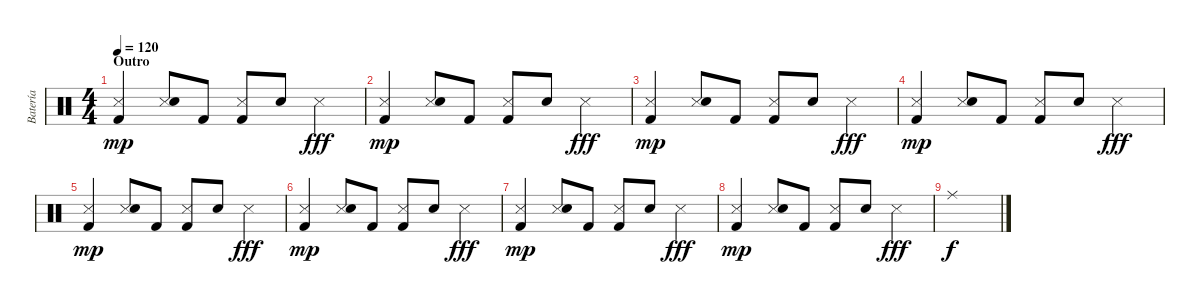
\track ("Batería" "Batería") {instrument percussion}
\staff {score}
\articulation defaults
\ts (4 4)
\section ("" "Outro")
\tempo 120
\clef neutral
\ks c
("Snare (side stick) 3" "Kick (hit) 2").4{dy mp} ("Snare (side stick) 3" "Snare (hit) 2").8 "Kick (hit) 2".8 ("Snare (side stick) 3" "Kick (hit) 2").8 "Snare (hit) 2".8 "Snare (side stick) 3".4{dy fff} |
("Snare (side stick) 3" "Kick (hit) 2").4{dy mp} ("Snare (side stick) 3" "Snare (hit) 2").8 "Kick (hit) 2".8 ("Snare (side stick) 3" "Kick (hit) 2").8 "Snare (hit) 2".8 "Snare (side stick) 3".4{dy fff} |
("Snare (side stick) 3" "Kick (hit) 2").4{dy mp} ("Snare (side stick) 3" "Snare (hit) 2").8 "Kick (hit) 2".8 ("Snare (side stick) 3" "Kick (hit) 2").8 "Snare (hit) 2".8 "Snare (side stick) 3".4{dy fff} |
("Snare (side stick) 3" "Kick (hit) 2").4{dy mp} ("Snare (side stick) 3" "Snare (hit) 2").8 "Kick (hit) 2".8 ("Snare (side stick) 3" "Kick (hit) 2").8 "Snare (hit) 2".8 "Snare (side stick) 3".4{dy fff} |
("Snare (side stick) 3" "Kick (hit) 2").4{dy mp} ("Snare (side stick) 3" "Snare (hit) 2").8 "Kick (hit) 2".8 ("Snare (side stick) 3" "Kick (hit) 2").8 "Snare (hit) 2".8 "Snare (side stick) 3".4{dy fff} |
("Snare (side stick) 3" "Kick (hit) 2").4{dy mp} ("Snare (side stick) 3" "Snare (hit) 2").8 "Kick (hit) 2".8 ("Snare (side stick) 3" "Kick (hit) 2").8 "Snare (hit) 2".8 "Snare (side stick) 3".4{dy fff} |
("Snare (side stick) 3" "Kick (hit) 2").4{dy mp} ("Snare (side stick) 3" "Snare (hit) 2").8 "Kick (hit) 2".8 ("Snare (side stick) 3" "Kick (hit) 2").8 "Snare (hit) 2".8 "Snare (side stick) 3".4{dy fff} |
("Snare (side stick) 3" "Kick (hit) 2").4{dy mp} ("Snare (side stick) 3" "Snare (hit) 2").8 "Kick (hit) 2".8 ("Snare (side stick) 3" "Kick (hit) 2").8 "Snare (hit) 2".8 "Snare (side stick) 3".4{dy fff} |
"Ride (middle)".1{dy f}
